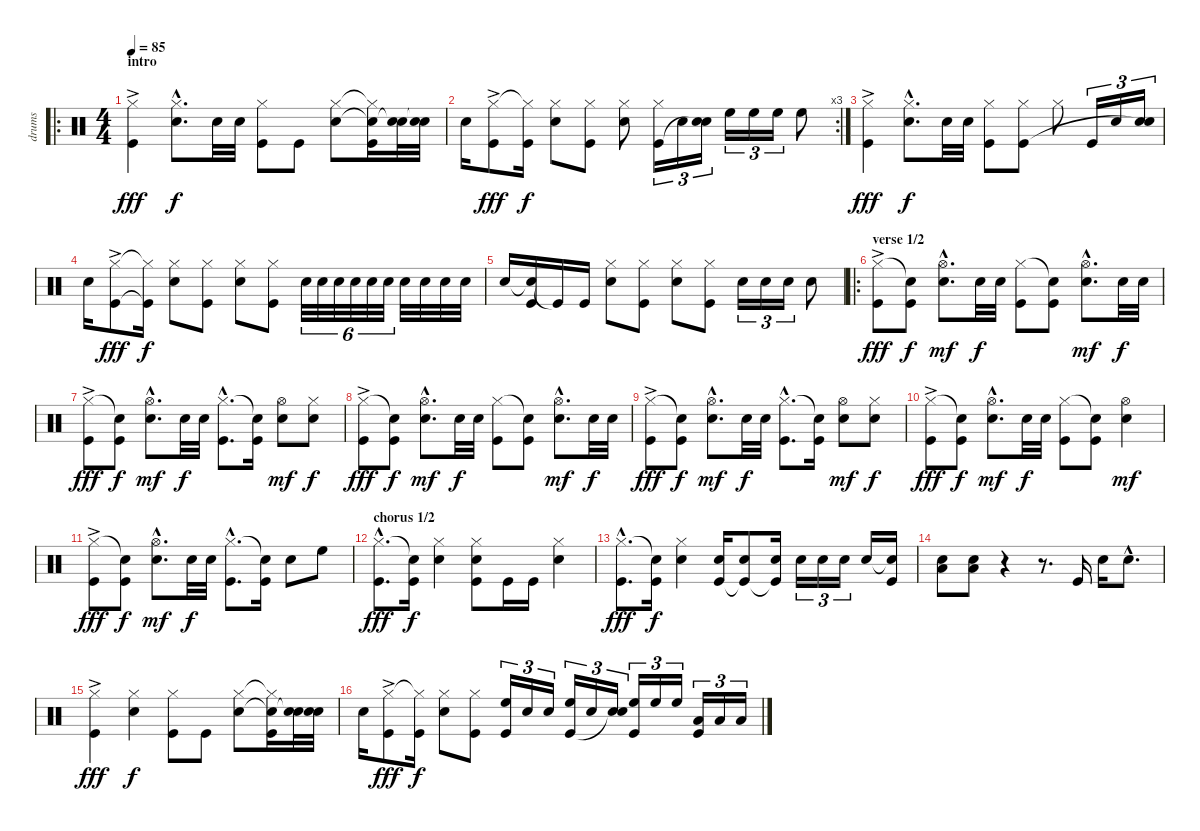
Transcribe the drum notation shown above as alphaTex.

\track ("drums" "drums") {instrument percussion}
\staff {score}
\articulation defaults
\ro
\ts (4 4)
\section ("" "intro")
\tempo 85
\clef neutral
\ks c
("Hi-Hat (closed)" "Kick (hit)"{ac}).4{dy fff} ("Hi-Hat (closed)"{hac} "Snare (hit) 2"{hac}).8{d dy f} "Snare (hit) 2".32 "Snare (hit) 2".32 ("Hi-Hat (closed)" "Kick (hit)").8 "Kick (hit)".8 ("Hi-Hat (closed)" "Snare (hit) 2").8 ("Hi-Hat (closed)"{t} "Snare (hit)"{t} "Kick (hit)").16 ("Snare (hit) 2" "Snare (hit)"{t}).32 ("Snare (hit) 2" "Snare (hit)"{t}).32 |
\rc 3 "Snare (hit) 2".16
("Hi-Hat (closed)"{ac} "Kick (hit)").8{dy fff} ("Hi-Hat (closed)"{t} "Kick (hit)").16{dy f} ("Hi-Hat (closed)" "Snare (hit) 2").8 ("Hi-Hat (closed)" "Kick (hit)").8 ("Hi-Hat (closed)" "Snare (hit) 2").8 ("Hi-Hat (closed)" "Kick (hit)").16{tu (3 2)} "Snare (hit) 2".16{tu (3 2)} ("Snare (hit) 2" "Snare (hit)"{t}).16{tu (3 2)} "High Floor Tom (hit)".16{tu (3 2)} "High Floor Tom (hit)".16{tu (3 2)} "High Floor Tom (hit)".16{tu (3 2)} "High Floor Tom (hit)".8 |
("Hi-Hat (closed)" "Kick (hit)"{ac}).4{dy fff} ("Hi-Hat (closed)"{hac} "Snare (hit) 2"{hac}).8{d dy f} "Snare (hit) 2".32 "Snare (hit) 2".32 ("Hi-Hat (closed)" "Kick (hit)").8 ("Hi-Hat (closed)" "Kick (hit)").8 "Hi-Hat (closed)".8 "Kick (hit)".16{tu (3 2)} "Snare (hit) 2".16{tu (3 2)} ("Snare (hit) 2" "Snare (hit)"{t}).16{tu (3 2)} |
"Snare (hit) 2".16 ("Hi-Hat (closed)"{ac} "Kick (hit)").8{dy fff} ("Hi-Hat (closed)"{t} "Kick (hit)"{t}).16{dy f} ("Hi-Hat (closed)" "Snare (hit) 2").8 ("Hi-Hat (closed)" "Kick (hit)").8 ("Hi-Hat (closed)" "Snare (hit) 2").8 ("Hi-Hat (closed)" "Kick (hit)").8 "Snare (hit) 2".32{tu (6 4)} "Snare (hit) 2".32{tu (6 4)} "Snare (hit) 2".32{tu (6 4)} "Snare (hit) 2".32{tu (6 4)} "Snare (hit) 2".32{tu (6 4)} "Snare (hit) 2".32{tu (6 4)} "Snare (hit) 2".32 "Snare (hit) 2".32 "Snare (hit) 2".32 "Snare (hit) 2".32 |
"Snare (hit) 2".16 ("Snare (hit)"{t} "Kick (hit)").16 "Kick (hit)"{t}.16 "Kick (hit)".16 ("Hi-Hat (closed)" "Snare (hit) 2").8 ("Hi-Hat (closed)" "Kick (hit)").8 ("Hi-Hat (closed)" "Snare (hit) 2").8 ("Hi-Hat (closed)" "Kick (hit)").8 "Snare (hit) 2".16{tu (3 2)} "Snare (hit) 2".16{tu (3 2)} "Snare (hit) 2".16{tu (3 2)} "Snare (hit) 2".8 |
\ro
\section ("" "verse 1/2")
("Hi-Hat (closed)" "Kick (hit)"{ac}).8{dy fff} ("Snare (hit)"{t} "Kick (hit)").8{dy f} ("Hi-Hat (open)"{hac} "Snare (hit) 2"{hac}).8{d dy mf} "Snare (hit) 2".32{dy f} "Snare (hit) 2".32 ("Hi-Hat (closed)" "Kick (hit)").8 ("Snare (hit)"{t} "Kick (hit)").8 ("Hi-Hat (open)"{hac} "Snare (hit) 2"{hac}).8{d dy mf} "Snare (hit) 2".32{dy f} "Snare (hit) 2".32 |
("Hi-Hat (closed)" "Kick (hit)"{ac}).8{dy fff} ("Snare (hit)"{t} "Kick (hit)").8{dy f} ("Hi-Hat (open)"{hac} "Snare (hit) 2"{hac}).8{d dy mf} "Snare (hit) 2".32{dy f} "Snare (hit) 2".32 ("Hi-Hat (closed)"{hac} "Kick (hit)"{hac}).8{d} ("Snare (hit)"{t} "Kick (hit)").16 ("Hi-Hat (open)" "Snare (hit) 2").8{dy mf} ("Hi-Hat (closed)" "Snare (hit) 2").8{dy f} |
("Hi-Hat (closed)" "Kick (hit)"{ac}).8{dy fff} ("Snare (hit)"{t} "Kick (hit)").8{dy f} ("Hi-Hat (open)"{hac} "Snare (hit) 2"{hac}).8{d dy mf} "Snare (hit) 2".32{dy f} "Snare (hit) 2".32 ("Hi-Hat (closed)" "Kick (hit)").8 ("Snare (hit)"{t} "Kick (hit)").8 ("Hi-Hat (open)"{hac} "Snare (hit) 2"{hac}).8{d dy mf} "Snare (hit) 2".32{dy f} "Snare (hit) 2".32 |
("Hi-Hat (closed)" "Kick (hit)"{ac}).8{dy fff} ("Snare (hit)"{t} "Kick (hit)").8{dy f} ("Hi-Hat (open)"{hac} "Snare (hit) 2"{hac}).8{d dy mf} "Snare (hit) 2".32{dy f} "Snare (hit) 2".32 ("Hi-Hat (closed)"{hac} "Kick (hit)"{hac}).8{d} ("Snare (hit)"{t} "Kick (hit)").16 ("Hi-Hat (open)" "Snare (hit) 2").8{dy mf} ("Hi-Hat (closed)" "Snare (hit) 2").8{dy f} |
("Hi-Hat (closed)" "Kick (hit)"{ac}).8{dy fff} ("Snare (hit)"{t} "Kick (hit)").8{dy f} ("Hi-Hat (open)"{hac} "Snare (hit) 2"{hac}).8{d dy mf} "Snare (hit) 2".32{dy f} "Snare (hit) 2".32 ("Hi-Hat (closed)" "Kick (hit)").8 ("Snare (hit)"{t} "Kick (hit)").8 ("Hi-Hat (open)" "Snare (hit) 2").4{dy mf} |
("Hi-Hat (closed)" "Kick (hit)"{ac}).8{dy fff} ("Snare (hit)"{t} "Kick (hit)").8{dy f} ("Hi-Hat (open)"{hac} "Snare (hit) 2"{hac}).8{d dy mf} "Snare (hit) 2".32{dy f} "Snare (hit) 2".32 ("Hi-Hat (closed)"{hac} "Kick (hit)"{hac}).8{d} ("Snare (hit)"{t} "Kick (hit)").16 "Snare (hit) 2".8 "High Floor Tom (hit)".8 |
\section ("" "chorus 1/2")
("Hi-Hat (closed)"{hac} "Kick (hit)"{hac}).8{d dy fff} ("Snare (hit)"{t} "Kick (hit)").16{dy f} ("Hi-Hat (closed)" "Snare (hit) 2").4 ("Hi-Hat (closed)" "Snare (hit) 2" "Kick (hit)").8 "Kick (hit)".16 "Kick (hit)".16 ("Hi-Hat (closed)" "Snare (hit) 2").4 |
("Hi-Hat (closed)"{hac} "Kick (hit)"{hac}).8{d dy fff} ("Snare (hit)"{t} "Kick (hit)").16{dy f} ("Hi-Hat (closed)" "Snare (hit) 2").4 ("Snare (hit) 2" "Kick (hit)").16 ("Snare (hit) 2" "Kick (hit)"{t}).8 ("Snare (hit) 2" "Kick (hit)"{t}).16 "Snare (hit) 2".16{tu (3 2)} "Snare (hit) 2".16{tu (3 2)} "Snare (hit) 2".16{tu (3 2)} "Snare (hit) 2".16 ("Snare (hit) 2"{t} "Kick (hit)").16 |
("Snare (hit) 2" "Low Floor Tom (hit)").8 ("Snare (hit) 2" "Low Floor Tom (hit)").8 r.4 r.8{d} "Kick (hit)".16 "Snare (hit) 2".16 "Snare (hit) 2"{hac}.8{d} |
("Hi-Hat (closed)" "Kick (hit)"{ac}).4{dy fff} ("Hi-Hat (closed)" "Snare (hit) 2").4{dy f} ("Hi-Hat (closed)" "Kick (hit)").8 "Kick (hit)".8 ("Hi-Hat (closed)" "Snare (hit) 2").8 ("Hi-Hat (closed)"{t} "Snare (hit)"{t} "Kick (hit)").16 ("Snare (hit) 2" "Snare (hit)"{t}).32 ("Snare (hit) 2" "Snare (hit)"{t}).32 |
"Snare (hit) 2".16 ("Hi-Hat (closed)"{ac} "Kick (hit)").8{dy fff} ("Hi-Hat (closed)"{t} "Kick (hit)").16{dy f} ("Hi-Hat (closed)" "Snare (hit) 2").8 ("Hi-Hat (closed)" "Kick (hit)").8 ("High Floor Tom (hit)" "Kick (hit)").16{tu (3 2)} "Snare (hit) 2".16{tu (3 2)} "Snare (hit) 2".16{tu (3 2)} ("High Floor Tom (hit)" "Kick (hit)").16{tu (3 2)} "Snare (hit) 2".16{tu (3 2)} ("Snare (hit) 2" "Snare (hit)"{t}).16{tu (3 2)} ("High Floor Tom (hit)" "Kick (hit)").16{tu (3 2)} "High Floor Tom (hit)".16{tu (3 2)} "High Floor Tom (hit)".16{tu (3 2)} ("Low Tom (hit)" "Kick (hit)").16{tu (3 2)} "Low Tom (hit)".16{tu (3 2)} "Low Tom (hit)".16{tu (3 2)}
